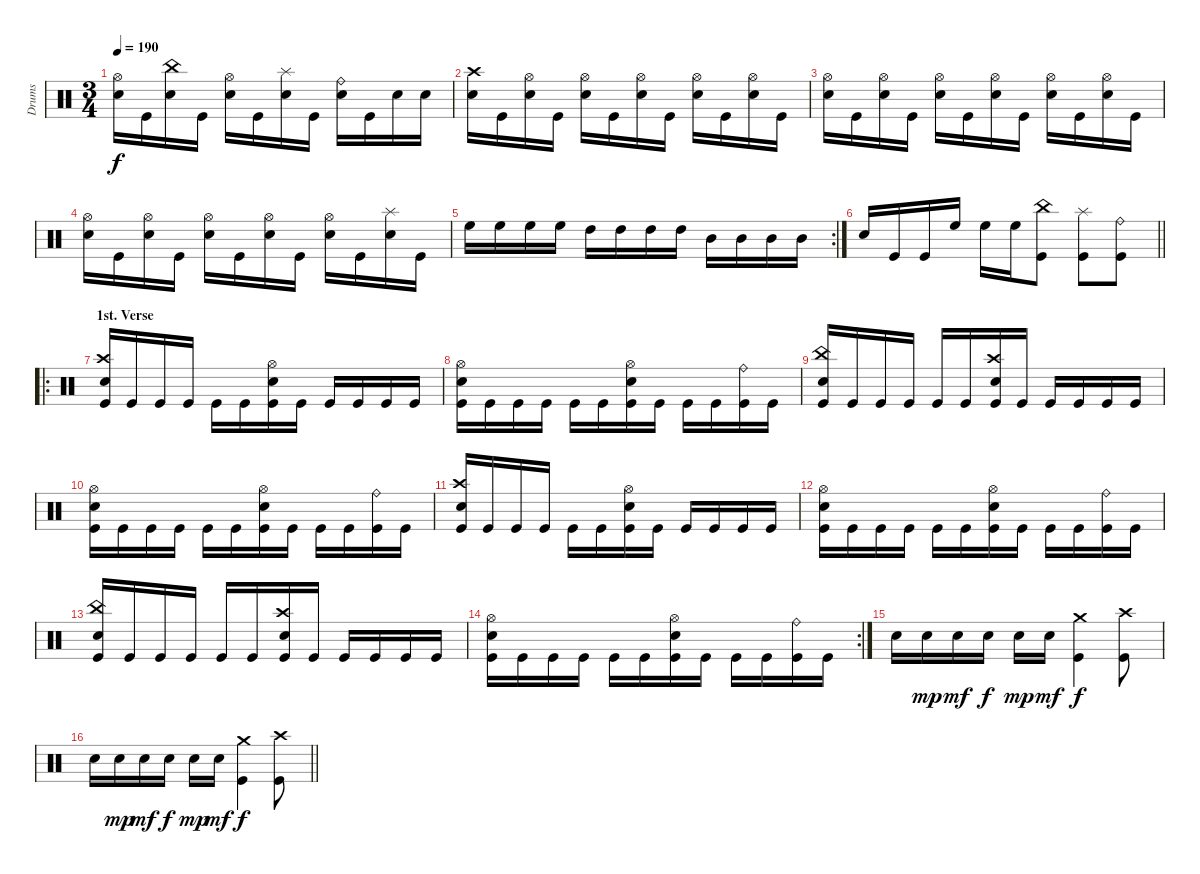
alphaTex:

\track ("Drums" "Drums") {instrument percussion}
\staff {score}
\articulation defaults
\ts (3 4)
\tempo 190
\clef neutral
\ks c
("Hi-Hat (open)" "Snare (hit) 2").16{dy f} "Kick (hit)".16 ("China (hit)" "Snare (hit) 2").16 "Kick (hit)".16 ("Hi-Hat (open)" "Snare (hit) 2").16 "Kick (hit)".16 ("Splash (hit)" "Snare (hit) 2").16 "Kick (hit)".16 ("Ride (bell)" "Snare (hit) 2").16 "Kick (hit)".16 "Snare (hit) 2".16 "Snare (hit) 2".16 |
("Crash high (hit)" "Snare (hit) 2").16 "Kick (hit)".16 ("Hi-Hat (open)" "Snare (hit) 2").16 "Kick (hit)".16 ("Hi-Hat (open)" "Snare (hit) 2").16 "Kick (hit)".16 ("Hi-Hat (open)" "Snare (hit) 2").16 "Kick (hit)".16 ("Hi-Hat (open)" "Snare (hit) 2").16 "Kick (hit)".16 ("Hi-Hat (open)" "Snare (hit) 2").16 "Kick (hit)".16 |
("Hi-Hat (open)" "Snare (hit) 2").16 "Kick (hit)".16 ("Hi-Hat (open)" "Snare (hit) 2").16 "Kick (hit)".16 ("Hi-Hat (open)" "Snare (hit) 2").16 "Kick (hit)".16 ("Hi-Hat (open)" "Snare (hit) 2").16 "Kick (hit)".16 ("Hi-Hat (open)" "Snare (hit) 2").16 "Kick (hit)".16 ("Hi-Hat (open)" "Snare (hit) 2").16 "Kick (hit)".16 |
("Hi-Hat (open)" "Snare (hit) 2").16 "Kick (hit)".16 ("Hi-Hat (open)" "Snare (hit) 2").16 "Kick (hit)".16 ("Hi-Hat (open)" "Snare (hit) 2").16 "Kick (hit)".16 ("Hi-Hat (open)" "Snare (hit) 2").16 "Kick (hit)".16 ("Hi-Hat (open)" "Snare (hit) 2").16 "Kick (hit)".16 ("Splash (hit)" "Snare (hit) 2").16 "Kick (hit)".16 |
\rc 2 "High Floor Tom (hit)".16 "High Floor Tom (hit)".16 "High Floor Tom (hit)".16 "High Floor Tom (hit)".16 "High Tom (hit)".16 "High Tom (hit)".16 "High Tom (hit)".16 "High Tom (hit)".16 "Mid Tom (hit)".16 "Mid Tom (hit)".16 "Mid Tom (hit)".16 "Mid Tom (hit)".16
|
\barLineRight lightlight "Electric Snare (hit)".16 "Kick (hit)".16 "Kick (hit)".16 "High Floor Tom (hit)".16 "High Floor Tom (hit)".16 "High Floor Tom (hit)".16
("China (hit)" "Kick (hit)").8 ("Splash (hit)" "Kick (hit)").8 ("Ride (bell)" "Kick (hit)").8 |
\ro
\section ("" "1st. Verse")
("Crash high (hit)" "Electric Snare (hit)" "Kick (hit)").16 "Kick (hit)".16 "Kick (hit)".16 "Kick (hit)".16 "Kick (hit)".16 "Kick (hit)".16 ("Hi-Hat (open)" "Electric Snare (hit)" "Kick (hit)").16 "Kick (hit)".16 "Kick (hit)".16 "Kick (hit)".16 "Kick (hit)".16 "Kick (hit)".16 |
("Hi-Hat (open)" "Electric Snare (hit)" "Kick (hit)").16 "Kick (hit)".16 "Kick (hit)".16 "Kick (hit)".16 "Kick (hit)".16 "Kick (hit)".16 ("Hi-Hat (open)" "Electric Snare (hit)" "Kick (hit)").16 "Kick (hit)".16 "Kick (hit)".16 "Kick (hit)".16 ("Ride (bell)" "Kick (hit)").16 "Kick (hit)".16 |
("China (hit)" "Electric Snare (hit)" "Kick (hit)").16 "Kick (hit)".16 "Kick (hit)".16 "Kick (hit)".16 "Kick (hit)".16 "Kick (hit)".16 ("Crash high (hit)" "Electric Snare (hit)" "Kick (hit)").16 "Kick (hit)".16 "Kick (hit)".16 "Kick (hit)".16 "Kick (hit)".16 "Kick (hit)".16 |
("Hi-Hat (open)" "Electric Snare (hit)" "Kick (hit)").16 "Kick (hit)".16 "Kick (hit)".16 "Kick (hit)".16 "Kick (hit)".16 "Kick (hit)".16 ("Hi-Hat (open)" "Electric Snare (hit)" "Kick (hit)").16 "Kick (hit)".16 "Kick (hit)".16 "Kick (hit)".16 ("Ride (bell)" "Kick (hit)").16 "Kick (hit)".16 |
("Crash high (hit)" "Electric Snare (hit)" "Kick (hit)").16 "Kick (hit)".16 "Kick (hit)".16 "Kick (hit)".16 "Kick (hit)".16 "Kick (hit)".16 ("Hi-Hat (open)" "Electric Snare (hit)" "Kick (hit)").16 "Kick (hit)".16 "Kick (hit)".16 "Kick (hit)".16 "Kick (hit)".16 "Kick (hit)".16 |
("Hi-Hat (open)" "Electric Snare (hit)" "Kick (hit)").16 "Kick (hit)".16 "Kick (hit)".16 "Kick (hit)".16 "Kick (hit)".16 "Kick (hit)".16 ("Hi-Hat (open)" "Electric Snare (hit)" "Kick (hit)").16 "Kick (hit)".16 "Kick (hit)".16 "Kick (hit)".16 ("Ride (bell)" "Kick (hit)").16 "Kick (hit)".16 |
("China (hit)" "Electric Snare (hit)" "Kick (hit)").16 "Kick (hit)".16 "Kick (hit)".16 "Kick (hit)".16 "Kick (hit)".16 "Kick (hit)".16 ("Crash high (hit)" "Electric Snare (hit)" "Kick (hit)").16 "Kick (hit)".16 "Kick (hit)".16 "Kick (hit)".16 "Kick (hit)".16 "Kick (hit)".16 |
\rc 2
("Hi-Hat (open)" "Electric Snare (hit)" "Kick (hit)").16 "Kick (hit)".16 "Kick (hit)".16 "Kick (hit)".16 "Kick (hit)".16 "Kick (hit)".16 ("Hi-Hat (open)" "Electric Snare (hit)" "Kick (hit)").16 "Kick (hit)".16 "Kick (hit)".16 "Kick (hit)".16 ("Ride (bell)" "Kick (hit)").16 "Kick (hit)".16 |
"Electric Snare (hit)".16 "Snare (hit) 2".16{dy mp} "Snare (hit) 2".16{dy mf} "Snare (hit) 2".16{dy f} "Snare (hit) 2".16{dy mp} "Snare (hit) 2".16{dy mf} ("Crash medium (hit)" "Kick (hit)").4{dy f} ("Crash high (hit)" "Kick (hit)").8 |
\barLineRight lightlight "Electric Snare (hit)".16 "Snare (hit) 2".16{dy mp} "Snare (hit) 2".16{dy mf} "Snare (hit) 2".16{dy f} "Snare (hit) 2".16{dy mp} "Snare (hit) 2".16{dy mf}
("Crash medium (hit)" "Kick (hit)").4{dy f} ("Crash high (hit)" "Kick (hit)").8
